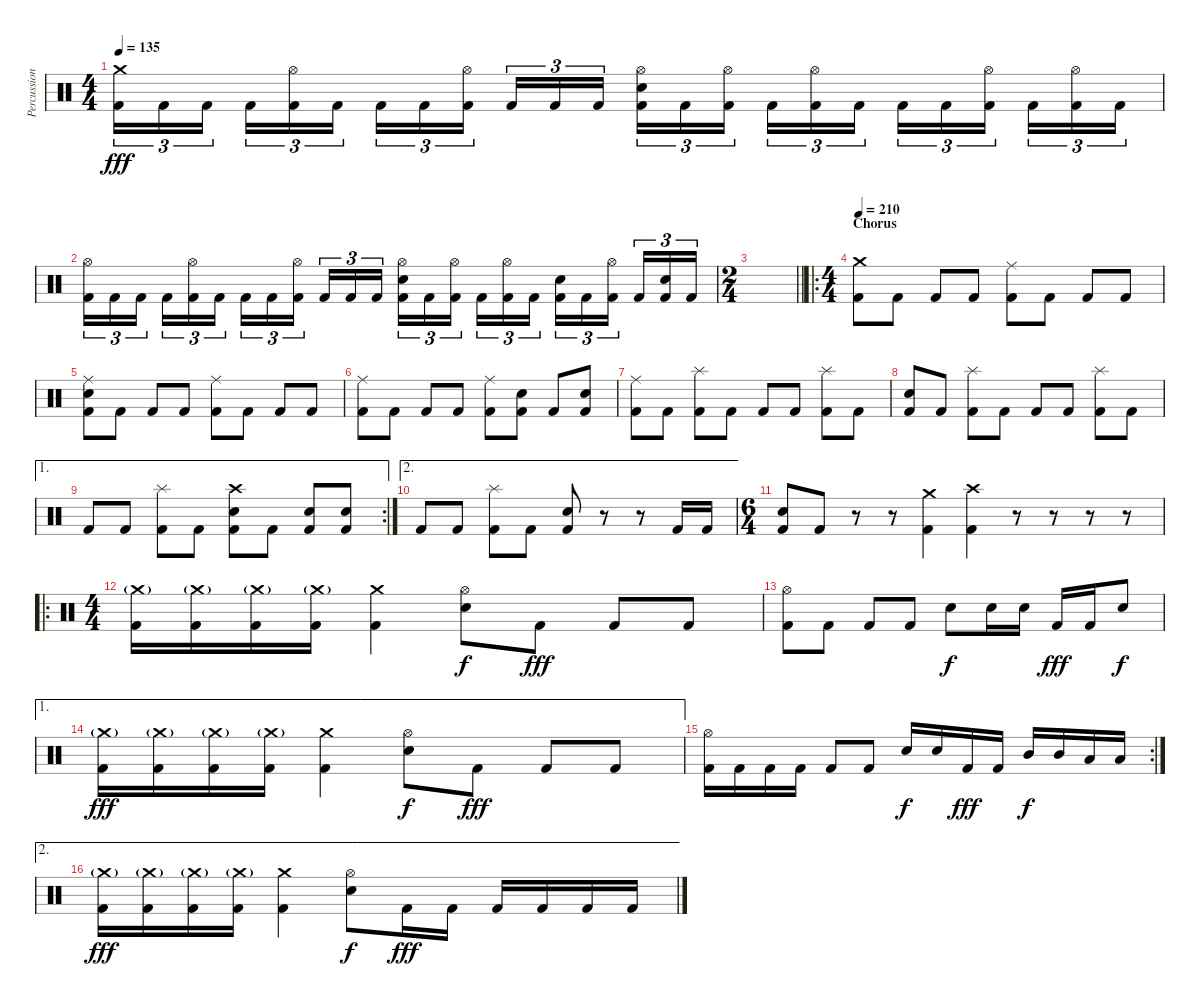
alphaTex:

\track ("Percussions" "Percussion") {instrument percussion}
\staff {score}
\articulation defaults
\ts (4 4)
\tempo 135
\clef neutral
\ks c
("Crash medium (hit)" "Kick (hit) 2").16{tu (3 2) dy fff} "Kick (hit) 2".16{tu (3 2)} "Kick (hit) 2".16{tu (3 2) beam splitsecondary} "Kick (hit) 2".16{tu (3 2)} ("Hi-Hat (open)" "Kick (hit) 2").16{tu (3 2)} "Kick (hit) 2".16{tu (3 2)} "Kick (hit) 2".16{tu (3 2)} "Kick (hit) 2".16{tu (3 2)} ("Hi-Hat (open)" "Kick (hit) 2").16{tu (3 2) beam splitsecondary} "Kick (hit) 2".16{tu (3 2)} "Kick (hit) 2".16{tu (3 2)} "Kick (hit) 2".16{tu (3 2)} ("Hi-Hat (open)" "Electric Snare (hit)" "Kick (hit) 2").16{tu (3 2)} "Kick (hit) 2".16{tu (3 2)} ("Hi-Hat (open)" "Kick (hit) 2").16{tu (3 2) beam splitsecondary} "Kick (hit) 2".16{tu (3 2)} ("Hi-Hat (open)" "Kick (hit) 2").16{tu (3 2)} "Kick (hit) 2".16{tu (3 2)} "Kick (hit) 2".16{tu (3 2)} "Kick (hit) 2".16{tu (3 2)} ("Hi-Hat (open)" "Kick (hit) 2").16{tu (3 2) beam splitsecondary} "Kick (hit) 2".16{tu (3 2)} ("Hi-Hat (open)" "Kick (hit) 2").16{tu (3 2)} "Kick (hit) 2".16{tu (3 2)} |
("Hi-Hat (open)" "Kick (hit) 2").16{tu (3 2)} "Kick (hit) 2".16{tu (3 2)} "Kick (hit) 2".16{tu (3 2) beam splitsecondary} "Kick (hit) 2".16{tu (3 2)} ("Hi-Hat (open)" "Kick (hit) 2").16{tu (3 2)} "Kick (hit) 2".16{tu (3 2)} "Kick (hit) 2".16{tu (3 2)} "Kick (hit) 2".16{tu (3 2)} ("Hi-Hat (open)" "Kick (hit) 2").16{tu (3 2) beam splitsecondary} "Kick (hit) 2".16{tu (3 2)} "Kick (hit) 2".16{tu (3 2)} "Kick (hit) 2".16{tu (3 2)} ("Hi-Hat (open)" "Electric Snare (hit)" "Kick (hit) 2").16{tu (3 2)} "Kick (hit) 2".16{tu (3 2)} ("Hi-Hat (open)" "Kick (hit) 2").16{tu (3 2) beam splitsecondary} "Kick (hit) 2".16{tu (3 2)} ("Hi-Hat (open)" "Kick (hit) 2").16{tu (3 2)} "Kick (hit) 2".16{tu (3 2)} ("Electric Snare (hit)" "Kick (hit) 2").16{tu (3 2)} "Kick (hit) 2".16{tu (3 2)} ("Hi-Hat (open)" "Kick (hit) 2").16{tu (3 2) beam splitsecondary} "Kick (hit) 2".16{tu (3 2)} ("Electric Snare (hit)" "Kick (hit) 2").16{tu (3 2)} "Kick (hit) 2".16{tu (3 2)} |
\ts (2 4)
\barLineRight lightlight
|
\ro
\ts (4 4)
\section ("" "Chorus")
\tempo 210
("Crash medium (hit)" "Kick (hit) 2").8 "Kick (hit) 2".8 "Kick (hit) 2".8 "Kick (hit) 2".8 ("Ride (middle)" "Kick (hit) 2").8 "Kick (hit) 2".8 "Kick (hit) 2".8 "Kick (hit) 2".8 |
("Ride (middle)" "Electric Snare (hit)" "Kick (hit) 2").8 "Kick (hit) 2".8 "Kick (hit) 2".8 "Kick (hit) 2".8 ("Ride (middle)" "Kick (hit) 2").8 "Kick (hit) 2".8 "Kick (hit) 2".8 "Kick (hit) 2".8 |
("Ride (middle)" "Kick (hit) 2").8 "Kick (hit) 2".8 "Kick (hit) 2".8 "Kick (hit) 2".8 ("Ride (middle)" "Kick (hit) 2").8 ("Electric Snare (hit)" "Kick (hit) 2").8 "Kick (hit) 2".8 ("Electric Snare (hit)" "Kick (hit) 2").8 |
("Ride (middle)" "Kick (hit) 2").8 "Kick (hit) 2".8 ("Splash (hit)" "Kick (hit) 2").8 "Kick (hit) 2".8 "Kick (hit) 2".8 "Kick (hit) 2".8 ("Splash (hit)" "Kick (hit) 2").8 "Kick (hit) 2".8 |
("Electric Snare (hit)" "Kick (hit) 2").8 "Kick (hit) 2".8 ("Splash (hit)" "Kick (hit) 2").8 "Kick (hit) 2".8 "Kick (hit) 2".8 "Kick (hit) 2".8 ("Splash (hit)" "Kick (hit) 2").8 "Kick (hit) 2".8 |
\ae 1
\rc 2 "Kick (hit) 2".8 "Kick (hit) 2".8
("Splash (hit)" "Kick (hit) 2").8 "Kick (hit) 2".8 ("Crash high (hit)" "Electric Snare (hit)" "Kick (hit) 2").8 "Kick (hit) 2".8 ("Electric Snare (hit)" "Kick (hit) 2").8 ("Electric Snare (hit)" "Kick (hit) 2").8 |
\ae 2 "Kick (hit) 2".8 "Kick (hit) 2".8
("Splash (hit)" "Kick (hit) 2").8 "Kick (hit) 2".8 ("Electric Snare (hit)" "Kick (hit) 2").8 r.8 r.8 "Kick (hit) 2".16 "Kick (hit) 2".16 |
\ts (6 4)
("Electric Snare (hit)" "Kick (hit) 2").8 "Kick (hit) 2".8 r.8 r.8 ("Crash medium (hit)" "Kick (hit) 2").4 ("Crash high (hit)" "Kick (hit) 2").4 r.8 r.8 r.8 r.8 |
\ro
\ts (4 4)
("Crash medium (hit)"{g} "Kick (hit) 2").16 ("Crash medium (hit)"{g} "Kick (hit) 2").16 ("Crash medium (hit)"{g} "Kick (hit) 2").16 ("Crash medium (hit)"{g} "Kick (hit) 2").16 ("Crash medium (hit)" "Kick (hit) 2").4 ("Hi-Hat (open)" "Electric Snare (hit)").8{dy f} "Kick (hit) 2".8{dy fff} "Kick (hit) 2".8 "Kick (hit) 2".8 |
("Hi-Hat (open)" "Kick (hit) 2").8 "Kick (hit) 2".8 "Kick (hit) 2".8 "Kick (hit) 2".8 "Electric Snare (hit)".8{dy f} "Electric Snare (hit)".16 "Electric Snare (hit)".16 "Kick (hit) 2".16{dy fff} "Kick (hit) 2".16 "Electric Snare (hit)".8{dy f} |
\ae 1
("Crash medium (hit)"{g} "Kick (hit) 2").16{dy fff} ("Crash medium (hit)"{g} "Kick (hit) 2").16 ("Crash medium (hit)"{g} "Kick (hit) 2").16 ("Crash medium (hit)"{g} "Kick (hit) 2").16 ("Crash medium (hit)" "Kick (hit) 2").4 ("Hi-Hat (open)" "Electric Snare (hit)").8{dy f} "Kick (hit) 2".8{dy fff} "Kick (hit) 2".8 "Kick (hit) 2".8 |
\rc 2
("Hi-Hat (open)" "Kick (hit) 2").16 "Kick (hit) 2".16 "Kick (hit) 2".16 "Kick (hit) 2".16 "Kick (hit) 2".8 "Kick (hit) 2".8 "Electric Snare (hit)".16{dy f} "Electric Snare (hit)".16 "Kick (hit) 2".16{dy fff} "Kick (hit) 2".16 "Mid Tom (hit)".16{dy f} "Mid Tom (hit)".16 "Low Tom (hit)".16 "Low Tom (hit)".16 |
\ae 2
("Crash medium (hit)"{g} "Kick (hit) 2").16{dy fff} ("Crash medium (hit)"{g} "Kick (hit) 2").16 ("Crash medium (hit)"{g} "Kick (hit) 2").16 ("Crash medium (hit)"{g} "Kick (hit) 2").16 ("Crash medium (hit)" "Kick (hit) 2").4 ("Hi-Hat (open)" "Electric Snare (hit)").8{dy f} "Kick (hit) 2".16{dy fff} "Kick (hit) 2".16 "Kick (hit) 2".16 "Kick (hit) 2".16 "Kick (hit) 2".16 "Kick (hit) 2".16
